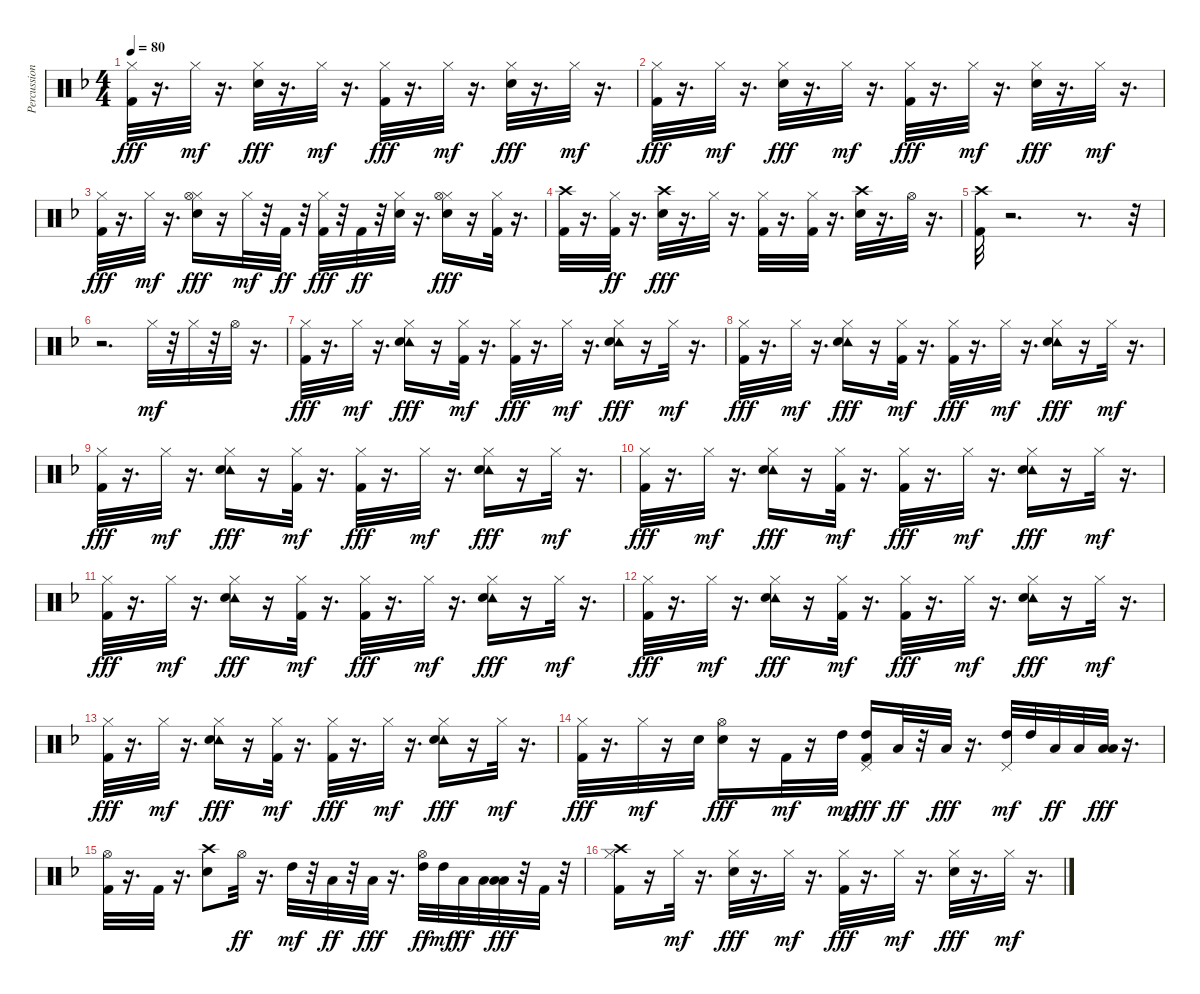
\track ("Percussion" "Percussion") {instrument percussion}
\staff {score}
\articulation defaults
\ts (4 4)
\tempo 80
\clef neutral
\ks f
("Hi-Hat (closed)" "Kick (hit) 2").32{dy fff} r.16{d} "Hi-Hat (closed)".32{dy mf} r.16{d} ("Hi-Hat (closed)" "Snare (hit) 2").32{dy fff} r.16{d} "Hi-Hat (closed)".32{dy mf} r.16{d} ("Hi-Hat (closed)" "Kick (hit) 2").32{dy fff} r.16{d} "Hi-Hat (closed)".32{dy mf} r.16{d} ("Hi-Hat (closed)" "Snare (hit) 2").32{dy fff} r.16{d} "Hi-Hat (closed)".32{dy mf} r.16{d} |
("Hi-Hat (closed)" "Kick (hit) 2").32{dy fff} r.16{d} "Hi-Hat (closed)".32{dy mf} r.16{d} ("Hi-Hat (closed)" "Snare (hit) 2").32{dy fff} r.16{d} "Hi-Hat (closed)".32{dy mf} r.16{d} ("Hi-Hat (closed)" "Kick (hit) 2").32{dy fff} r.16{d} "Hi-Hat (closed)".32{dy mf} r.16{d} ("Hi-Hat (closed)" "Snare (hit) 2").32{dy fff} r.16{d} "Hi-Hat (closed)".32{dy mf} r.16{d} |
("Hi-Hat (closed)" "Kick (hit) 2").32{dy fff} r.16{d} "Hi-Hat (closed)".32{dy mf} r.16{d} ("Hi-Hat (closed)" "Hi-Hat (open)" "Snare (hit) 2").16{dy fff} r.16 "Hi-Hat (closed)".32{dy mf} r.32 "Kick (hit) 2".32{dy ff} r.32 ("Hi-Hat (closed)" "Kick (hit) 2").32{dy fff} r.32 "Kick (hit) 2".32{dy ff} r.32 ("Hi-Hat (closed)" "Snare (hit) 2").32 r.16{d} ("Hi-Hat (closed)" "Hi-Hat (open)" "Snare (hit) 2").16{dy fff} r.16 ("Hi-Hat (closed)" "Kick (hit) 2").32 r.16{d} |
("Crash high (hit)" "Kick (hit) 2").32 r.16{d} ("Hi-Hat (closed)" "Kick (hit) 2").32{dy ff} r.16{d} ("Crash high (hit)" "Snare (hit) 2").32{dy fff} r.16{d} "Hi-Hat (closed)".32 r.16{d} ("Hi-Hat (closed)" "Kick (hit) 2").32 r.16{d} ("Hi-Hat (closed)" "Kick (hit) 2").32 r.16{d} ("Crash high (hit)" "Snare (hit) 2").32 r.16{d} "Hi-Hat (open)".32 r.16{d} |
("Crash high (hit)" "Kick (hit) 2").32 r.2{d} r.8{d} r.32 |
r.2{d} "Hi-Hat (closed)".32{dy mf} r.32 "Hi-Hat (closed)".32 r.32 "Hi-Hat (open)".32 r.16{d} |
("Hi-Hat (closed)" "Kick (hit) 2").32{dy fff} r.16{d} "Hi-Hat (closed)".32{dy mf} r.16{d} ("Hi-Hat (closed)" "Tambourine (hit)" "Snare (hit) 2").16{dy fff} r.16 ("Hi-Hat (closed)" "Kick (hit) 2").32{dy mf} r.16{d} ("Hi-Hat (closed)" "Kick (hit) 2").32{dy fff} r.16{d} "Hi-Hat (closed)".32{dy mf} r.16{d} ("Hi-Hat (closed)" "Tambourine (hit)" "Snare (hit) 2").16{dy fff} r.16 "Hi-Hat (closed)".32{dy mf} r.16{d} |
("Hi-Hat (closed)" "Kick (hit) 2").32{dy fff} r.16{d} "Hi-Hat (closed)".32{dy mf} r.16{d} ("Hi-Hat (closed)" "Tambourine (hit)" "Snare (hit) 2").16{dy fff} r.16 ("Hi-Hat (closed)" "Kick (hit) 2").32{dy mf} r.16{d} ("Hi-Hat (closed)" "Kick (hit) 2").32{dy fff} r.16{d} "Hi-Hat (closed)".32{dy mf} r.16{d} ("Hi-Hat (closed)" "Tambourine (hit)" "Snare (hit) 2").16{dy fff} r.16 "Hi-Hat (closed)".32{dy mf} r.16{d} |
("Hi-Hat (closed)" "Kick (hit) 2").32{dy fff} r.16{d} "Hi-Hat (closed)".32{dy mf} r.16{d} ("Hi-Hat (closed)" "Tambourine (hit)" "Snare (hit) 2").16{dy fff} r.16 ("Hi-Hat (closed)" "Kick (hit) 2").32{dy mf} r.16{d} ("Hi-Hat (closed)" "Kick (hit) 2").32{dy fff} r.16{d} "Hi-Hat (closed)".32{dy mf} r.16{d} ("Hi-Hat (closed)" "Tambourine (hit)" "Snare (hit) 2").16{dy fff} r.16 "Hi-Hat (closed)".32{dy mf} r.16{d} |
("Hi-Hat (closed)" "Kick (hit) 2").32{dy fff} r.16{d} "Hi-Hat (closed)".32{dy mf} r.16{d} ("Hi-Hat (closed)" "Tambourine (hit)" "Snare (hit) 2").16{dy fff} r.16 ("Hi-Hat (closed)" "Kick (hit) 2").32{dy mf} r.16{d} ("Hi-Hat (closed)" "Kick (hit) 2").32{dy fff} r.16{d} "Hi-Hat (closed)".32{dy mf} r.16{d} ("Hi-Hat (closed)" "Tambourine (hit)" "Snare (hit) 2").16{dy fff} r.16 "Hi-Hat (closed)".32{dy mf} r.16{d} |
("Hi-Hat (closed)" "Kick (hit) 2").32{dy fff} r.16{d} "Hi-Hat (closed)".32{dy mf} r.16{d} ("Hi-Hat (closed)" "Tambourine (hit)" "Snare (hit) 2").16{dy fff} r.16 ("Hi-Hat (closed)" "Kick (hit) 2").32{dy mf} r.16{d} ("Hi-Hat (closed)" "Kick (hit) 2").32{dy fff} r.16{d} "Hi-Hat (closed)".32{dy mf} r.16{d} ("Hi-Hat (closed)" "Tambourine (hit)" "Snare (hit) 2").16{dy fff} r.16 "Hi-Hat (closed)".32{dy mf} r.16{d} |
("Hi-Hat (closed)" "Kick (hit) 2").32{dy fff} r.16{d} "Hi-Hat (closed)".32{dy mf} r.16{d} ("Hi-Hat (closed)" "Tambourine (hit)" "Snare (hit) 2").16{dy fff} r.16 ("Hi-Hat (closed)" "Kick (hit) 2").32{dy mf} r.16{d} ("Hi-Hat (closed)" "Kick (hit) 2").32{dy fff} r.16{d} "Hi-Hat (closed)".32{dy mf} r.16{d} ("Hi-Hat (closed)" "Tambourine (hit)" "Snare (hit) 2").16{dy fff} r.16 "Hi-Hat (closed)".32{dy mf} r.16{d} |
("Hi-Hat (closed)" "Kick (hit) 2").32{dy fff} r.16{d} "Hi-Hat (closed)".32{dy mf} r.16{d} ("Hi-Hat (closed)" "Tambourine (hit)" "Snare (hit) 2").16{dy fff} r.16 ("Hi-Hat (closed)" "Kick (hit) 2").32{dy mf} r.16{d} ("Hi-Hat (closed)" "Kick (hit) 2").32{dy fff} r.16{d} "Hi-Hat (closed)".32{dy mf} r.16{d} ("Hi-Hat (closed)" "Tambourine (hit)" "Snare (hit) 2").16{dy fff} r.16 "Hi-Hat (closed)".32{dy mf} r.16{d} |
("Hi-Hat (closed)" "Kick (hit) 2").32{dy fff} r.16{d} "Hi-Hat (closed)".32{dy mf} r.16 "Snare (hit) 2".32 ("Hi-Hat (open)" "Snare (hit) 2").16{dy fff} r.16 "Kick (hit) 2".32{dy mf} r.16 "High Tom (hit)".32{dy mp} ("High Tom (hit)" "Pedal Hi-Hat (hit)" "Kick (hit) 2").16{dy fff} "Low Tom (hit)".32{dy ff} r.32 "Low Floor Tom (hit)".32{dy fff} r.16{d} ("High Tom (hit)" "Pedal Hi-Hat (hit)").32{dy mf} "High Tom (hit)".32 "Low Tom (hit)".32{dy ff} "Low Tom (hit)".32 ("Low Floor Tom (hit)" "Low Floor Tom (hit)").32{dy fff} r.16{d} |
("Hi-Hat (open)" "Kick (hit) 2").32 r.16{d} "Kick (hit) 2".32 r.16{d} ("Crash high (hit)" "Snare (hit) 2").8 "Hi-Hat (open)".32{dy ff} r.16{d} "High Tom (hit)".32{dy mf} r.32 "Low Tom (hit)".32{dy ff} r.32 "Low Floor Tom (hit)".32{dy fff} r.16{d} ("High Tom (hit)" "Hi-Hat (open)").32{dy ff} "High Tom (hit)".32{dy mf} "Low Tom (hit)".32{dy ff} "Low Tom (hit)".32 ("Low Floor Tom (hit)" "Low Floor Tom (hit)").32{dy fff} r.32 "Kick (hit) 2".32 r.32 |
("Hi-Hat (closed)" "Crash high (hit)" "Kick (hit) 2").16 r.16 "Hi-Hat (closed)".32{dy mf} r.16{d} ("Hi-Hat (closed)" "Snare (hit) 2").32{dy fff} r.16{d} "Hi-Hat (closed)".32{dy mf} r.16{d} ("Hi-Hat (closed)" "Kick (hit) 2").32{dy fff} r.16{d} "Hi-Hat (closed)".32{dy mf} r.16{d} ("Hi-Hat (closed)" "Snare (hit) 2").32{dy fff} r.16{d} "Hi-Hat (closed)".32{dy mf} r.16{d}
